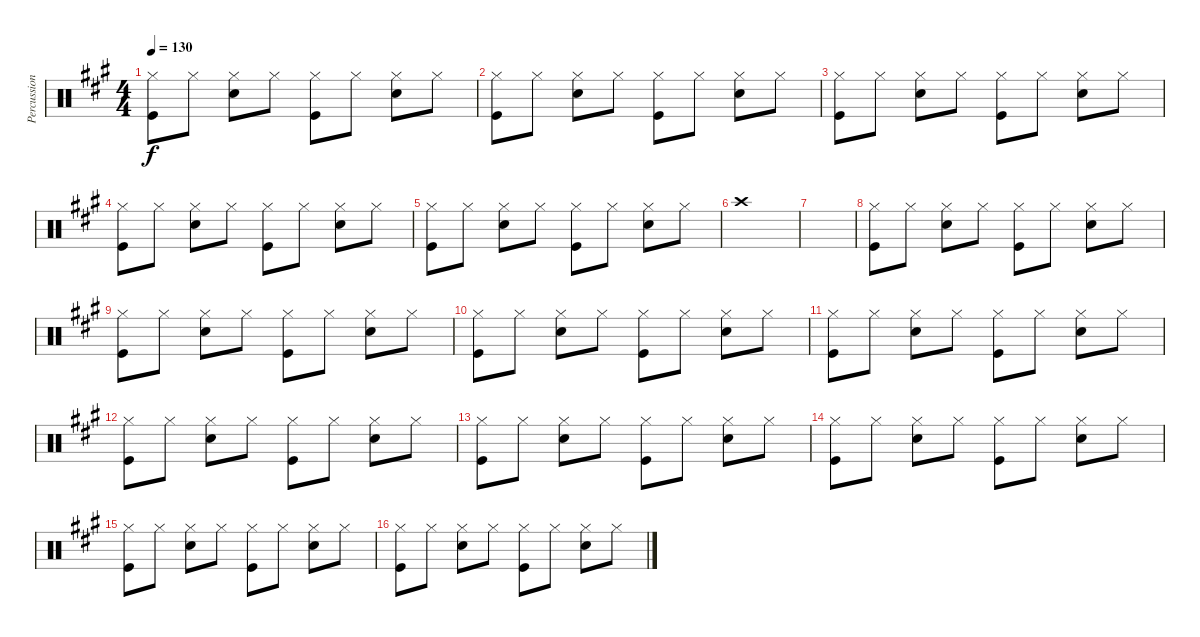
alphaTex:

\track ("Percussion" "Percussion") {instrument percussion}
\staff {score}
\articulation defaults
\ts (4 4)
\tempo 130
\clef neutral
\ks a
("Hi-Hat (closed)" "Kick (hit)").8{dy f} "Hi-Hat (closed)".8 ("Hi-Hat (closed)" "Snare (hit) 2").8 "Hi-Hat (closed)".8 ("Hi-Hat (closed)" "Kick (hit)").8 "Hi-Hat (closed)".8 ("Hi-Hat (closed)" "Snare (hit) 2").8 "Hi-Hat (closed)".8 |
("Hi-Hat (closed)" "Kick (hit)").8 "Hi-Hat (closed)".8 ("Hi-Hat (closed)" "Snare (hit) 2").8 "Hi-Hat (closed)".8 ("Hi-Hat (closed)" "Kick (hit)").8 "Hi-Hat (closed)".8 ("Hi-Hat (closed)" "Snare (hit) 2").8 "Hi-Hat (closed)".8 |
("Hi-Hat (closed)" "Kick (hit)").8 "Hi-Hat (closed)".8 ("Hi-Hat (closed)" "Snare (hit) 2").8 "Hi-Hat (closed)".8 ("Hi-Hat (closed)" "Kick (hit)").8 "Hi-Hat (closed)".8 ("Hi-Hat (closed)" "Snare (hit) 2").8 "Hi-Hat (closed)".8 |
("Hi-Hat (closed)" "Kick (hit)").8 "Hi-Hat (closed)".8 ("Hi-Hat (closed)" "Snare (hit) 2").8 "Hi-Hat (closed)".8 ("Hi-Hat (closed)" "Kick (hit)").8 "Hi-Hat (closed)".8 ("Hi-Hat (closed)" "Snare (hit) 2").8 "Hi-Hat (closed)".8 |
("Hi-Hat (closed)" "Kick (hit)").8 "Hi-Hat (closed)".8 ("Hi-Hat (closed)" "Snare (hit) 2").8 "Hi-Hat (closed)".8 ("Hi-Hat (closed)" "Kick (hit)").8 "Hi-Hat (closed)".8 ("Hi-Hat (closed)" "Snare (hit) 2").8 "Hi-Hat (closed)".8 |
"Crash high (hit)".1 |
|
("Hi-Hat (closed)" "Kick (hit)").8 "Hi-Hat (closed)".8 ("Hi-Hat (closed)" "Snare (hit) 2").8 "Hi-Hat (closed)".8 ("Hi-Hat (closed)" "Kick (hit)").8 "Hi-Hat (closed)".8 ("Hi-Hat (closed)" "Snare (hit) 2").8 "Hi-Hat (closed)".8 |
("Hi-Hat (closed)" "Kick (hit)").8 "Hi-Hat (closed)".8 ("Hi-Hat (closed)" "Snare (hit) 2").8 "Hi-Hat (closed)".8 ("Hi-Hat (closed)" "Kick (hit)").8 "Hi-Hat (closed)".8 ("Hi-Hat (closed)" "Snare (hit) 2").8 "Hi-Hat (closed)".8 |
("Hi-Hat (closed)" "Kick (hit)").8 "Hi-Hat (closed)".8 ("Hi-Hat (closed)" "Snare (hit) 2").8 "Hi-Hat (closed)".8 ("Hi-Hat (closed)" "Kick (hit)").8 "Hi-Hat (closed)".8 ("Hi-Hat (closed)" "Snare (hit) 2").8 "Hi-Hat (closed)".8 |
("Hi-Hat (closed)" "Kick (hit)").8 "Hi-Hat (closed)".8 ("Hi-Hat (closed)" "Snare (hit) 2").8 "Hi-Hat (closed)".8 ("Hi-Hat (closed)" "Kick (hit)").8 "Hi-Hat (closed)".8 ("Hi-Hat (closed)" "Snare (hit) 2").8 "Hi-Hat (closed)".8 |
("Hi-Hat (closed)" "Kick (hit)").8 "Hi-Hat (closed)".8 ("Hi-Hat (closed)" "Snare (hit) 2").8 "Hi-Hat (closed)".8 ("Hi-Hat (closed)" "Kick (hit)").8 "Hi-Hat (closed)".8 ("Hi-Hat (closed)" "Snare (hit) 2").8 "Hi-Hat (closed)".8 |
("Hi-Hat (closed)" "Kick (hit)").8 "Hi-Hat (closed)".8 ("Hi-Hat (closed)" "Snare (hit) 2").8 "Hi-Hat (closed)".8 ("Hi-Hat (closed)" "Kick (hit)").8 "Hi-Hat (closed)".8 ("Hi-Hat (closed)" "Snare (hit) 2").8 "Hi-Hat (closed)".8 |
("Hi-Hat (closed)" "Kick (hit)").8 "Hi-Hat (closed)".8 ("Hi-Hat (closed)" "Snare (hit) 2").8 "Hi-Hat (closed)".8 ("Hi-Hat (closed)" "Kick (hit)").8 "Hi-Hat (closed)".8 ("Hi-Hat (closed)" "Snare (hit) 2").8 "Hi-Hat (closed)".8 |
("Hi-Hat (closed)" "Kick (hit)").8 "Hi-Hat (closed)".8 ("Hi-Hat (closed)" "Snare (hit) 2").8 "Hi-Hat (closed)".8 ("Hi-Hat (closed)" "Kick (hit)").8 "Hi-Hat (closed)".8 ("Hi-Hat (closed)" "Snare (hit) 2").8 "Hi-Hat (closed)".8 |
("Hi-Hat (closed)" "Kick (hit)").8 "Hi-Hat (closed)".8 ("Hi-Hat (closed)" "Snare (hit) 2").8 "Hi-Hat (closed)".8 ("Hi-Hat (closed)" "Kick (hit)").8 "Hi-Hat (closed)".8 ("Hi-Hat (closed)" "Snare (hit) 2").8 "Hi-Hat (closed)".8
